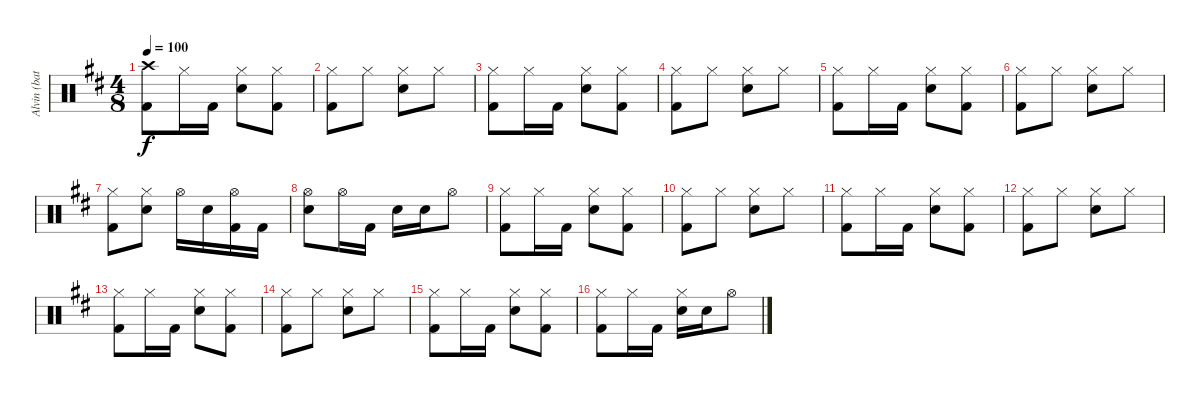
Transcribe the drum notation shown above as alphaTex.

\track ("Alvin (bateria)" "Alvin (bat") {instrument percussion}
\staff {score}
\articulation defaults
\ts (4 8)
\tempo 100
\clef neutral
\ks bminor
("Crash high (hit)" "Kick (hit) 2").8{dy f} "Hi-Hat (closed)".16 "Kick (hit) 2".16 ("Hi-Hat (closed)" "Electric Snare (hit)").8 ("Hi-Hat (closed)" "Kick (hit) 2").8 |
("Hi-Hat (closed)" "Kick (hit) 2").8 "Hi-Hat (closed)".8 ("Hi-Hat (closed)" "Electric Snare (hit)").8 "Hi-Hat (closed)".8 |
("Hi-Hat (closed)" "Kick (hit) 2").8 "Hi-Hat (closed)".16 "Kick (hit) 2".16 ("Hi-Hat (closed)" "Electric Snare (hit)").8 ("Hi-Hat (closed)" "Kick (hit) 2").8 |
("Hi-Hat (closed)" "Kick (hit) 2").8 "Hi-Hat (closed)".8 ("Hi-Hat (closed)" "Electric Snare (hit)").8 "Hi-Hat (closed)".8 |
("Hi-Hat (closed)" "Kick (hit) 2").8 "Hi-Hat (closed)".16 "Kick (hit) 2".16 ("Hi-Hat (closed)" "Electric Snare (hit)").8 ("Hi-Hat (closed)" "Kick (hit) 2").8 |
("Hi-Hat (closed)" "Kick (hit) 2").8 "Hi-Hat (closed)".8 ("Hi-Hat (closed)" "Electric Snare (hit)").8 "Hi-Hat (closed)".8 |
("Hi-Hat (closed)" "Kick (hit) 2").8 ("Hi-Hat (closed)" "Electric Snare (hit)").8 "Hi-Hat (open)".16 "Electric Snare (hit)".16 ("Hi-Hat (open)" "Kick (hit) 2").16 "Kick (hit) 2".16 |
("Hi-Hat (open)" "Electric Snare (hit)").8 "Hi-Hat (open)".16 "Kick (hit) 2".16 "Electric Snare (hit)".16 "Electric Snare (hit)".16 "Hi-Hat (open)".8 |
("Hi-Hat (closed)" "Kick (hit) 2").8 "Hi-Hat (closed)".16 "Kick (hit) 2".16 ("Hi-Hat (closed)" "Electric Snare (hit)").8 ("Hi-Hat (closed)" "Kick (hit) 2").8 |
("Hi-Hat (closed)" "Kick (hit) 2").8 "Hi-Hat (closed)".8 ("Hi-Hat (closed)" "Electric Snare (hit)").8 "Hi-Hat (closed)".8 |
("Hi-Hat (closed)" "Kick (hit) 2").8 "Hi-Hat (closed)".16 "Kick (hit) 2".16 ("Hi-Hat (closed)" "Electric Snare (hit)").8 ("Hi-Hat (closed)" "Kick (hit) 2").8 |
("Hi-Hat (closed)" "Kick (hit) 2").8 "Hi-Hat (closed)".8 ("Hi-Hat (closed)" "Electric Snare (hit)").8 "Hi-Hat (closed)".8 |
("Hi-Hat (closed)" "Kick (hit) 2").8 "Hi-Hat (closed)".16 "Kick (hit) 2".16 ("Hi-Hat (closed)" "Electric Snare (hit)").8 ("Hi-Hat (closed)" "Kick (hit) 2").8 |
("Hi-Hat (closed)" "Kick (hit) 2").8 "Hi-Hat (closed)".8 ("Hi-Hat (closed)" "Electric Snare (hit)").8 "Hi-Hat (closed)".8 |
("Hi-Hat (closed)" "Kick (hit) 2").8 "Hi-Hat (closed)".16 "Kick (hit) 2".16 ("Hi-Hat (closed)" "Electric Snare (hit)").8 ("Hi-Hat (closed)" "Kick (hit) 2").8 |
("Hi-Hat (closed)" "Kick (hit) 2").8 "Hi-Hat (closed)".16 "Kick (hit) 2".16 ("Hi-Hat (closed)" "Electric Snare (hit)").16 "Electric Snare (hit)".16 "Hi-Hat (open)".8
